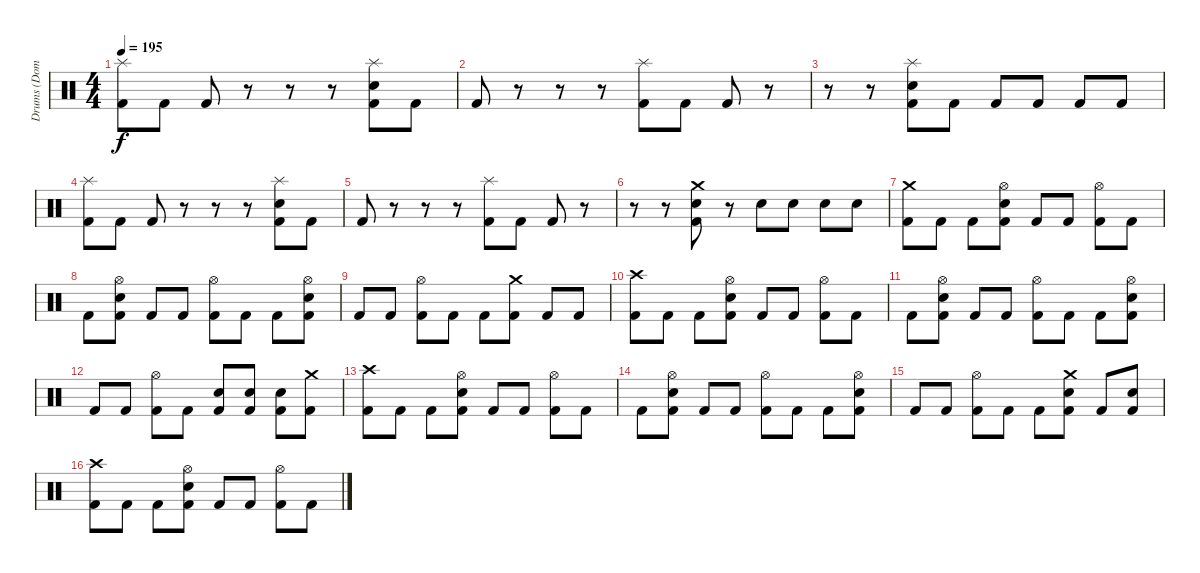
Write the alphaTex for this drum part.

\track ("Drums (Dominik)" "Drums (Dom") {instrument percussion}
\staff {score}
\articulation defaults
\ts (4 4)
\tempo 195
\clef neutral
\ks c
("Splash (hit)" "Kick (hit) 2").8{dy f} "Kick (hit) 2".8 "Kick (hit) 2".8 r.8 r.8 r.8 ("Splash (hit)" "Electric Snare (hit)" "Kick (hit) 2").8 "Kick (hit) 2".8 |
"Kick (hit) 2".8 r.8 r.8 r.8 ("Splash (hit)" "Kick (hit) 2").8 "Kick (hit) 2".8 "Kick (hit) 2".8 r.8 |
r.8 r.8 ("Splash (hit)" "Electric Snare (hit)" "Kick (hit) 2").8 "Kick (hit) 2".8 "Kick (hit) 2".8 "Kick (hit) 2".8 "Kick (hit) 2".8 "Kick (hit) 2".8 |
("Splash (hit)" "Kick (hit) 2").8 "Kick (hit) 2".8 "Kick (hit) 2".8 r.8 r.8 r.8 ("Splash (hit)" "Electric Snare (hit)" "Kick (hit) 2").8 "Kick (hit) 2".8 |
"Kick (hit) 2".8 r.8 r.8 r.8 ("Splash (hit)" "Kick (hit) 2").8 "Kick (hit) 2".8 "Kick (hit) 2".8 r.8 |
r.8 r.8 ("Crash medium (hit)" "Electric Snare (hit)" "Kick (hit) 2").8 r.8 "Electric Snare (hit)".8 "Electric Snare (hit)".8 "Electric Snare (hit)".8 "Electric Snare (hit)".8 |
("Crash medium (hit)" "Kick (hit) 2").8 "Kick (hit) 2".8 "Kick (hit) 2".8 ("Hi-Hat (open)" "Electric Snare (hit)" "Kick (hit) 2").8 "Kick (hit) 2".8 "Kick (hit) 2".8 ("Hi-Hat (open)" "Kick (hit) 2").8 "Kick (hit) 2".8 |
"Kick (hit) 2".8 ("Hi-Hat (open)" "Electric Snare (hit)" "Kick (hit) 2").8 "Kick (hit) 2".8 "Kick (hit) 2".8 ("Hi-Hat (open)" "Kick (hit) 2").8 "Kick (hit) 2".8 "Kick (hit) 2".8 ("Hi-Hat (open)" "Electric Snare (hit)" "Kick (hit) 2").8 |
"Kick (hit) 2".8 "Kick (hit) 2".8 ("Hi-Hat (open)" "Kick (hit) 2").8 "Kick (hit) 2".8 "Kick (hit) 2".8 ("Crash medium (hit)" "Kick (hit) 2").8 "Kick (hit) 2".8 "Kick (hit) 2".8 |
("Crash high (hit)" "Kick (hit) 2").8 "Kick (hit) 2".8 "Kick (hit) 2".8 ("Hi-Hat (open)" "Electric Snare (hit)" "Kick (hit) 2").8 "Kick (hit) 2".8 "Kick (hit) 2".8 ("Hi-Hat (open)" "Kick (hit) 2").8 "Kick (hit) 2".8 |
"Kick (hit) 2".8 ("Hi-Hat (open)" "Electric Snare (hit)" "Kick (hit) 2").8 "Kick (hit) 2".8 "Kick (hit) 2".8 ("Hi-Hat (open)" "Kick (hit) 2").8 "Kick (hit) 2".8 "Kick (hit) 2".8 ("Hi-Hat (open)" "Electric Snare (hit)" "Kick (hit) 2").8 |
"Kick (hit) 2".8 "Kick (hit) 2".8 ("Hi-Hat (open)" "Kick (hit) 2").8 "Kick (hit) 2".8 ("Electric Snare (hit)" "Kick (hit) 2").8 ("Electric Snare (hit)" "Kick (hit) 2").8 ("Electric Snare (hit)" "Kick (hit) 2").8 ("Crash medium (hit)" "Kick (hit) 2").8 |
("Crash high (hit)" "Kick (hit) 2").8 "Kick (hit) 2".8 "Kick (hit) 2".8 ("Hi-Hat (open)" "Electric Snare (hit)" "Kick (hit) 2").8 "Kick (hit) 2".8 "Kick (hit) 2".8 ("Hi-Hat (open)" "Kick (hit) 2").8 "Kick (hit) 2".8 |
"Kick (hit) 2".8 ("Hi-Hat (open)" "Electric Snare (hit)" "Kick (hit) 2").8 "Kick (hit) 2".8 "Kick (hit) 2".8 ("Hi-Hat (open)" "Kick (hit) 2").8 "Kick (hit) 2".8 "Kick (hit) 2".8 ("Hi-Hat (open)" "Electric Snare (hit)" "Kick (hit) 2").8 |
"Kick (hit) 2".8 "Kick (hit) 2".8 ("Hi-Hat (open)" "Kick (hit) 2").8 "Kick (hit) 2".8 "Kick (hit) 2".8 ("Crash medium (hit)" "Electric Snare (hit)" "Kick (hit) 2").8 "Kick (hit) 2".8 ("Electric Snare (hit)" "Kick (hit) 2").8 |
("Crash high (hit)" "Kick (hit) 2").8 "Kick (hit) 2".8 "Kick (hit) 2".8 ("Hi-Hat (open)" "Electric Snare (hit)" "Kick (hit) 2").8 "Kick (hit) 2".8 "Kick (hit) 2".8 ("Hi-Hat (open)" "Kick (hit) 2").8 "Kick (hit) 2".8
